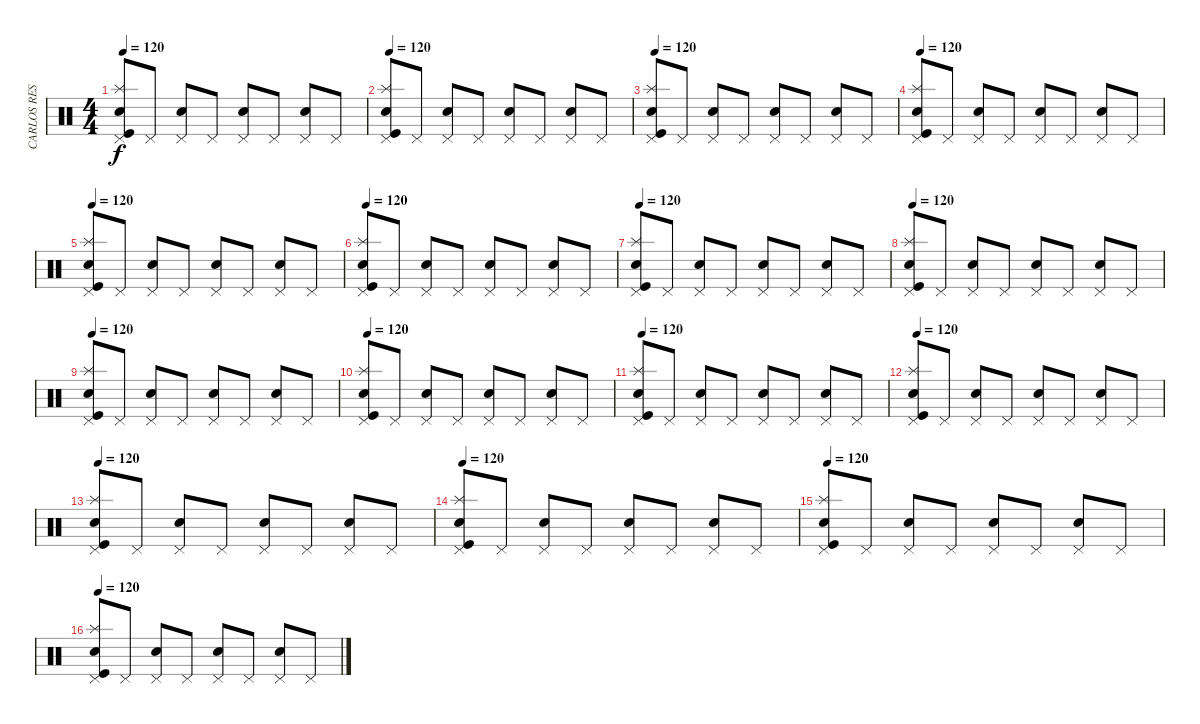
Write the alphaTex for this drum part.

\track ("CARLOS RESTREPO DARK BATERIA" "CARLOS RES") {instrument percussion}
\staff {score}
\articulation defaults
\ts (4 4)
\tempo 120
\clef neutral
\ks c
("Pedal Hi-Hat (hit)" "Kick (hit)" "Splash (hit)" "Snare (hit) 2").8{dy f} "Pedal Hi-Hat (hit)".8 ("Pedal Hi-Hat (hit)" "Snare (hit) 2").8 "Pedal Hi-Hat (hit)".8 ("Pedal Hi-Hat (hit)" "Snare (hit) 2").8 "Pedal Hi-Hat (hit)".8 ("Pedal Hi-Hat (hit)" "Snare (hit) 2").8 "Pedal Hi-Hat (hit)".8 |
\tempo 120
("Pedal Hi-Hat (hit)" "Kick (hit)" "Splash (hit)" "Snare (hit) 2").8 "Pedal Hi-Hat (hit)".8 ("Pedal Hi-Hat (hit)" "Snare (hit) 2").8 "Pedal Hi-Hat (hit)".8 ("Pedal Hi-Hat (hit)" "Snare (hit) 2").8 "Pedal Hi-Hat (hit)".8 ("Pedal Hi-Hat (hit)" "Snare (hit) 2").8 "Pedal Hi-Hat (hit)".8 |
\tempo 120
("Pedal Hi-Hat (hit)" "Kick (hit)" "Splash (hit)" "Snare (hit) 2").8 "Pedal Hi-Hat (hit)".8 ("Pedal Hi-Hat (hit)" "Snare (hit) 2").8 "Pedal Hi-Hat (hit)".8 ("Pedal Hi-Hat (hit)" "Snare (hit) 2").8 "Pedal Hi-Hat (hit)".8 ("Pedal Hi-Hat (hit)" "Snare (hit) 2").8 "Pedal Hi-Hat (hit)".8 |
\tempo 120
("Pedal Hi-Hat (hit)" "Kick (hit)" "Splash (hit)" "Snare (hit) 2").8 "Pedal Hi-Hat (hit)".8 ("Pedal Hi-Hat (hit)" "Snare (hit) 2").8 "Pedal Hi-Hat (hit)".8 ("Pedal Hi-Hat (hit)" "Snare (hit) 2").8 "Pedal Hi-Hat (hit)".8 ("Pedal Hi-Hat (hit)" "Snare (hit) 2").8 "Pedal Hi-Hat (hit)".8 |
\tempo 120
("Pedal Hi-Hat (hit)" "Kick (hit)" "Splash (hit)" "Snare (hit) 2").8 "Pedal Hi-Hat (hit)".8 ("Pedal Hi-Hat (hit)" "Snare (hit) 2").8 "Pedal Hi-Hat (hit)".8 ("Pedal Hi-Hat (hit)" "Snare (hit) 2").8 "Pedal Hi-Hat (hit)".8 ("Pedal Hi-Hat (hit)" "Snare (hit) 2").8 "Pedal Hi-Hat (hit)".8 |
\tempo 120
("Pedal Hi-Hat (hit)" "Kick (hit)" "Splash (hit)" "Snare (hit) 2").8 "Pedal Hi-Hat (hit)".8 ("Pedal Hi-Hat (hit)" "Snare (hit) 2").8 "Pedal Hi-Hat (hit)".8 ("Pedal Hi-Hat (hit)" "Snare (hit) 2").8 "Pedal Hi-Hat (hit)".8 ("Pedal Hi-Hat (hit)" "Snare (hit) 2").8 "Pedal Hi-Hat (hit)".8 |
\tempo 120
("Pedal Hi-Hat (hit)" "Kick (hit)" "Splash (hit)" "Snare (hit) 2").8 "Pedal Hi-Hat (hit)".8 ("Pedal Hi-Hat (hit)" "Snare (hit) 2").8 "Pedal Hi-Hat (hit)".8 ("Pedal Hi-Hat (hit)" "Snare (hit) 2").8 "Pedal Hi-Hat (hit)".8 ("Pedal Hi-Hat (hit)" "Snare (hit) 2").8 "Pedal Hi-Hat (hit)".8 |
\tempo 120
("Pedal Hi-Hat (hit)" "Kick (hit)" "Splash (hit)" "Snare (hit) 2").8 "Pedal Hi-Hat (hit)".8 ("Pedal Hi-Hat (hit)" "Snare (hit) 2").8 "Pedal Hi-Hat (hit)".8 ("Pedal Hi-Hat (hit)" "Snare (hit) 2").8 "Pedal Hi-Hat (hit)".8 ("Pedal Hi-Hat (hit)" "Snare (hit) 2").8 "Pedal Hi-Hat (hit)".8 |
\tempo 120
("Pedal Hi-Hat (hit)" "Kick (hit)" "Splash (hit)" "Snare (hit) 2").8 "Pedal Hi-Hat (hit)".8 ("Pedal Hi-Hat (hit)" "Snare (hit) 2").8 "Pedal Hi-Hat (hit)".8 ("Pedal Hi-Hat (hit)" "Snare (hit) 2").8 "Pedal Hi-Hat (hit)".8 ("Pedal Hi-Hat (hit)" "Snare (hit) 2").8 "Pedal Hi-Hat (hit)".8 |
\tempo 120
("Pedal Hi-Hat (hit)" "Kick (hit)" "Splash (hit)" "Snare (hit) 2").8 "Pedal Hi-Hat (hit)".8 ("Pedal Hi-Hat (hit)" "Snare (hit) 2").8 "Pedal Hi-Hat (hit)".8 ("Pedal Hi-Hat (hit)" "Snare (hit) 2").8 "Pedal Hi-Hat (hit)".8 ("Pedal Hi-Hat (hit)" "Snare (hit) 2").8 "Pedal Hi-Hat (hit)".8 |
\tempo 120
("Pedal Hi-Hat (hit)" "Kick (hit)" "Splash (hit)" "Snare (hit) 2").8 "Pedal Hi-Hat (hit)".8 ("Pedal Hi-Hat (hit)" "Snare (hit) 2").8 "Pedal Hi-Hat (hit)".8 ("Pedal Hi-Hat (hit)" "Snare (hit) 2").8 "Pedal Hi-Hat (hit)".8 ("Pedal Hi-Hat (hit)" "Snare (hit) 2").8 "Pedal Hi-Hat (hit)".8 |
\tempo 120
("Pedal Hi-Hat (hit)" "Kick (hit)" "Splash (hit)" "Snare (hit) 2").8 "Pedal Hi-Hat (hit)".8 ("Pedal Hi-Hat (hit)" "Snare (hit) 2").8 "Pedal Hi-Hat (hit)".8 ("Pedal Hi-Hat (hit)" "Snare (hit) 2").8 "Pedal Hi-Hat (hit)".8 ("Pedal Hi-Hat (hit)" "Snare (hit) 2").8 "Pedal Hi-Hat (hit)".8 |
\tempo 120
("Pedal Hi-Hat (hit)" "Kick (hit)" "Splash (hit)" "Snare (hit) 2").8 "Pedal Hi-Hat (hit)".8 ("Pedal Hi-Hat (hit)" "Snare (hit) 2").8 "Pedal Hi-Hat (hit)".8 ("Pedal Hi-Hat (hit)" "Snare (hit) 2").8 "Pedal Hi-Hat (hit)".8 ("Pedal Hi-Hat (hit)" "Snare (hit) 2").8 "Pedal Hi-Hat (hit)".8 |
\tempo 120
("Pedal Hi-Hat (hit)" "Kick (hit)" "Splash (hit)" "Snare (hit) 2").8 "Pedal Hi-Hat (hit)".8 ("Pedal Hi-Hat (hit)" "Snare (hit) 2").8 "Pedal Hi-Hat (hit)".8 ("Pedal Hi-Hat (hit)" "Snare (hit) 2").8 "Pedal Hi-Hat (hit)".8 ("Pedal Hi-Hat (hit)" "Snare (hit) 2").8 "Pedal Hi-Hat (hit)".8 |
\tempo 120
("Pedal Hi-Hat (hit)" "Kick (hit)" "Splash (hit)" "Snare (hit) 2").8 "Pedal Hi-Hat (hit)".8 ("Pedal Hi-Hat (hit)" "Snare (hit) 2").8 "Pedal Hi-Hat (hit)".8 ("Pedal Hi-Hat (hit)" "Snare (hit) 2").8 "Pedal Hi-Hat (hit)".8 ("Pedal Hi-Hat (hit)" "Snare (hit) 2").8 "Pedal Hi-Hat (hit)".8 |
\tempo 120
("Pedal Hi-Hat (hit)" "Kick (hit)" "Splash (hit)" "Snare (hit) 2").8 "Pedal Hi-Hat (hit)".8 ("Pedal Hi-Hat (hit)" "Snare (hit) 2").8 "Pedal Hi-Hat (hit)".8 ("Pedal Hi-Hat (hit)" "Snare (hit) 2").8 "Pedal Hi-Hat (hit)".8 ("Pedal Hi-Hat (hit)" "Snare (hit) 2").8 "Pedal Hi-Hat (hit)".8
